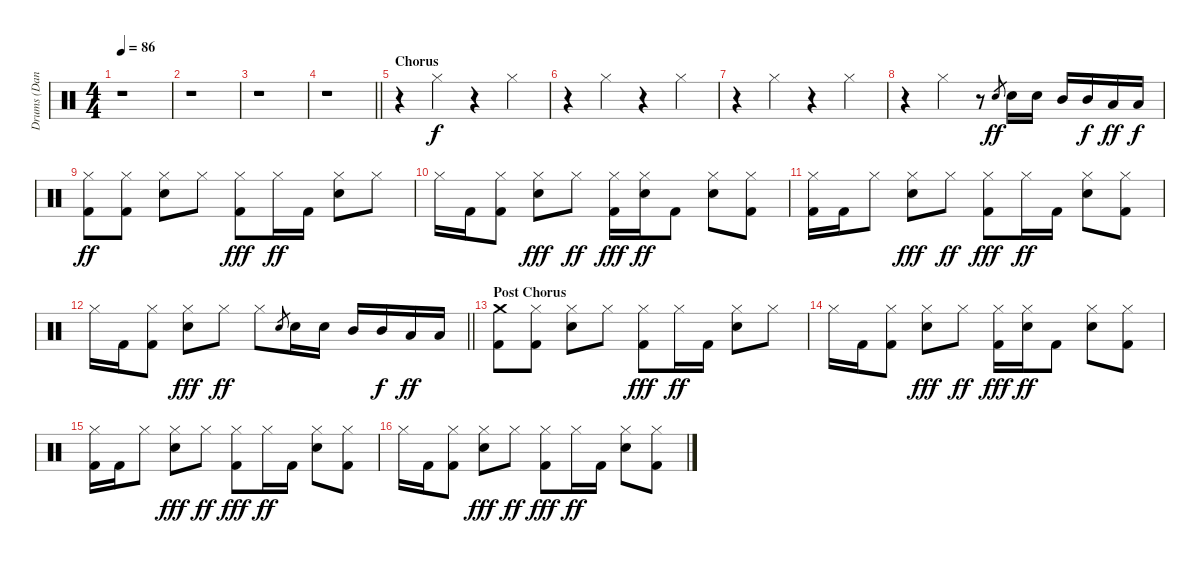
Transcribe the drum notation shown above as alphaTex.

\track ("Drums (Dan)" "Drums (Dan") {instrument percussion}
\staff {score}
\articulation defaults
\ts (4 4)
\tempo 86
\clef neutral
\ks c
r.1{dy f} |
r.1 |
r.1 |
\barLineRight lightlight
r.1 |
\section ("" "Chorus")
r.4 "Hi-Hat (closed)".4 r.4 "Hi-Hat (closed)".4 |
r.4 "Hi-Hat (closed)".4 r.4 "Hi-Hat (closed)".4 |
r.4 "Hi-Hat (closed)".4 r.4 "Hi-Hat (closed)".4 |
r.4 "Hi-Hat (closed)".4 r.8 "Electric Snare (hit)".8{gr dy ff} "Electric Snare (hit)".16 "Electric Snare (hit)".16 "Mid Tom (hit)".16 "Mid Tom (hit)".16{dy f} "Low Tom (hit)".16{dy ff} "Low Floor Tom (hit)".16{dy f} |
("Hi-Hat (closed)" "Kick (hit) 2").8{dy ff} ("Hi-Hat (closed)" "Kick (hit) 2").8 ("Hi-Hat (closed)" "Electric Snare (hit)").8 "Hi-Hat (closed)".8 ("Hi-Hat (closed)" "Kick (hit) 2").8{dy fff} "Hi-Hat (closed)".16{dy ff} "Kick (hit) 2".16 ("Hi-Hat (closed)" "Electric Snare (hit)").8 "Hi-Hat (closed)".8 |
"Hi-Hat (closed)".16 "Kick (hit) 2".16 ("Hi-Hat (closed)" "Kick (hit) 2").8 ("Hi-Hat (closed)" "Electric Snare (hit)").8{dy fff} "Hi-Hat (closed)".8{dy ff} ("Hi-Hat (closed)" "Kick (hit) 2").16{dy fff} ("Hi-Hat (closed)" "Electric Snare (hit)").16{dy ff} "Kick (hit) 2".8 ("Hi-Hat (closed)" "Electric Snare (hit)").8 ("Hi-Hat (closed)" "Kick (hit) 2").8 |
("Hi-Hat (closed)" "Kick (hit) 2").16 "Kick (hit) 2".16 "Hi-Hat (closed)".8 ("Hi-Hat (closed)" "Electric Snare (hit)").8{dy fff} "Hi-Hat (closed)".8{dy ff} ("Hi-Hat (closed)" "Kick (hit) 2").8{dy fff} "Hi-Hat (closed)".16{dy ff} "Kick (hit) 2".16 ("Hi-Hat (closed)" "Electric Snare (hit)").8 ("Hi-Hat (closed)" "Kick (hit) 2").8 |
\barLineRight lightlight "Hi-Hat (closed)".16 "Kick (hit) 2".16
("Hi-Hat (closed)" "Kick (hit) 2").8 ("Hi-Hat (closed)" "Electric Snare (hit)").8{dy fff} "Hi-Hat (closed)".8{dy ff} "Hi-Hat (closed)".8 "Electric Snare (hit)".8{gr} "Electric Snare (hit)".16 "Electric Snare (hit)".16 "Mid Tom (hit)".16 "Mid Tom (hit)".16{dy f} "Low Floor Tom (hit)".16{dy ff} "Low Tom (hit)".16 |
\section ("" "Post Chorus")
("Crash medium (hit)" "Kick (hit) 2").8 ("Hi-Hat (closed)" "Kick (hit) 2").8 ("Hi-Hat (closed)" "Electric Snare (hit)").8 "Hi-Hat (closed)".8 ("Hi-Hat (closed)" "Kick (hit) 2").8{dy fff} "Hi-Hat (closed)".16{dy ff} "Kick (hit) 2".16 ("Hi-Hat (closed)" "Electric Snare (hit)").8 "Hi-Hat (closed)".8 |
"Hi-Hat (closed)".16 "Kick (hit) 2".16 ("Hi-Hat (closed)" "Kick (hit) 2").8 ("Hi-Hat (closed)" "Electric Snare (hit)").8{dy fff} "Hi-Hat (closed)".8{dy ff} ("Hi-Hat (closed)" "Kick (hit) 2").16{dy fff} ("Hi-Hat (closed)" "Electric Snare (hit)").16{dy ff} "Kick (hit) 2".8 ("Hi-Hat (closed)" "Electric Snare (hit)").8 ("Hi-Hat (closed)" "Kick (hit) 2").8 |
("Hi-Hat (closed)" "Kick (hit) 2").16 "Kick (hit) 2".16 "Hi-Hat (closed)".8 ("Hi-Hat (closed)" "Electric Snare (hit)").8{dy fff} "Hi-Hat (closed)".8{dy ff} ("Hi-Hat (closed)" "Kick (hit) 2").8{dy fff} "Hi-Hat (closed)".16{dy ff} "Kick (hit) 2".16 ("Hi-Hat (closed)" "Electric Snare (hit)").8 ("Hi-Hat (closed)" "Kick (hit) 2").8 |
"Hi-Hat (closed)".16 "Kick (hit) 2".16 ("Hi-Hat (closed)" "Kick (hit) 2").8 ("Hi-Hat (closed)" "Electric Snare (hit)").8{dy fff} "Hi-Hat (closed)".8{dy ff} ("Hi-Hat (closed)" "Kick (hit) 2").8{dy fff} "Hi-Hat (closed)".16{dy ff} "Kick (hit) 2".16 ("Hi-Hat (closed)" "Electric Snare (hit)").8 ("Hi-Hat (closed)" "Kick (hit) 2").8
